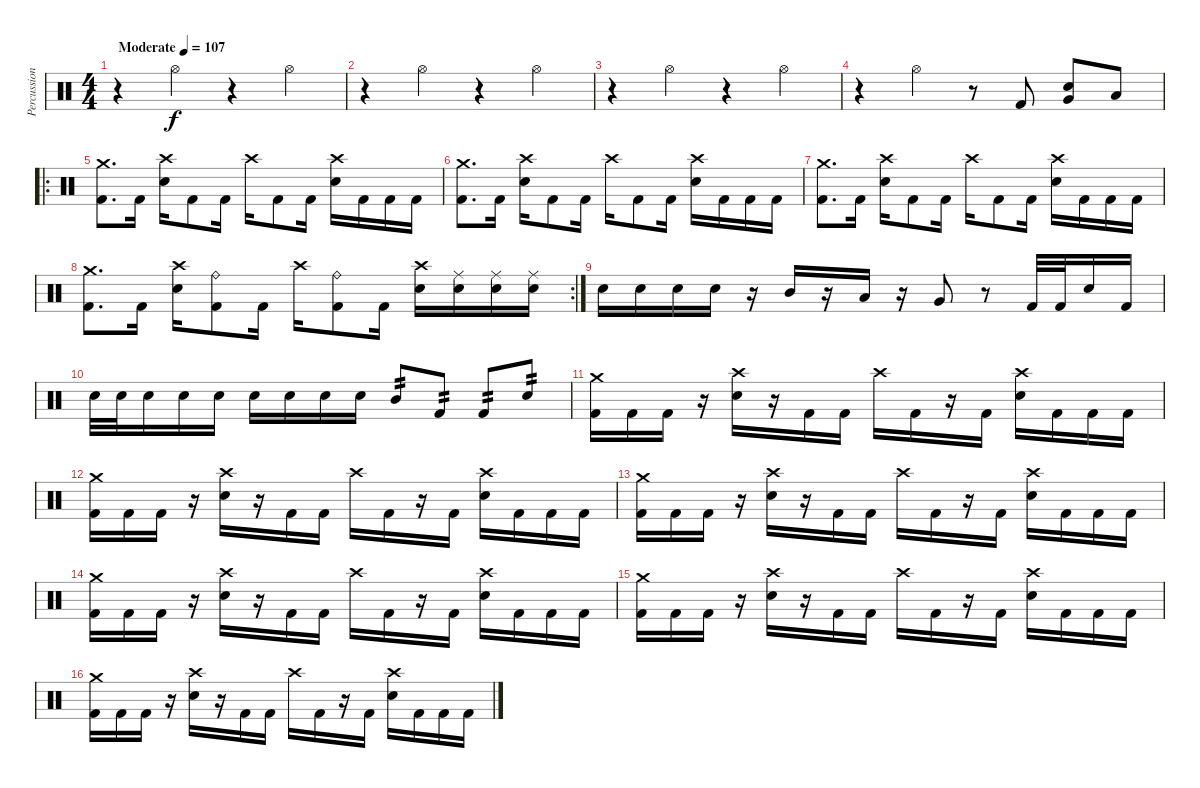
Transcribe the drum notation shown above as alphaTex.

\track ("Percussion" "Percussion") {instrument percussion}
\staff {score}
\articulation defaults
\ts (4 4)
\tempo (107 "Moderate")
\clef neutral
\ks c
r.4{dy f} "Hi-Hat (open)".4 r.4 "Hi-Hat (open)".4 |
r.4 "Hi-Hat (open)".4 r.4 "Hi-Hat (open)".4 |
r.4 "Hi-Hat (open)".4 r.4 "Hi-Hat (open)".4 |
r.4 "Hi-Hat (open)".4 r.8 "Kick (hit) 2".8 ("Very Low Tom (hit)" "Electric Snare (hit)").8 "Low Tom (hit)".8 |
\ro
("Crash medium (hit)" "Kick (hit) 2").8{d} "Kick (hit) 2".16 ("Crash high (hit)" "Electric Snare (hit)").16 "Kick (hit) 2".8 "Kick (hit) 2".16 "Crash high (hit)".16 "Kick (hit) 2".8 "Kick (hit) 2".16 ("Crash high (hit)" "Electric Snare (hit)").16 "Kick (hit) 2".16 "Kick (hit) 2".16 "Kick (hit) 2".16 |
("Crash medium (hit)" "Kick (hit) 2").8{d} "Kick (hit) 2".16 ("Crash high (hit)" "Electric Snare (hit)").16 "Kick (hit) 2".8 "Kick (hit) 2".16 "Crash high (hit)".16 "Kick (hit) 2".8 "Kick (hit) 2".16 ("Crash high (hit)" "Electric Snare (hit)").16 "Kick (hit) 2".16 "Kick (hit) 2".16 "Kick (hit) 2".16 |
("Crash medium (hit)" "Kick (hit) 2").8{d} "Kick (hit) 2".16 ("Crash high (hit)" "Electric Snare (hit)").16 "Kick (hit) 2".8 "Kick (hit) 2".16 "Crash high (hit)".16 "Kick (hit) 2".8 "Kick (hit) 2".16 ("Crash high (hit)" "Electric Snare (hit)").16 "Kick (hit) 2".16 "Kick (hit) 2".16 "Kick (hit) 2".16 |
\rc 2
("Crash medium (hit)" "Kick (hit) 2").8{d} "Kick (hit) 2".16 ("Crash high (hit)" "Electric Snare (hit)").16 ("Ride (bell)" "Kick (hit) 2").8 "Kick (hit) 2".16 "Crash high (hit)".16 ("Ride (bell)" "Kick (hit) 2").8 "Kick (hit) 2".16 ("Crash high (hit)" "Electric Snare (hit)").16 ("Ride (middle)" "Electric Snare (hit)").16 ("Ride (middle)" "Electric Snare (hit)").16 ("Ride (middle)" "Electric Snare (hit)").16 |
"Electric Snare (hit)".16 "Electric Snare (hit)".16 "Electric Snare (hit)".16 "Electric Snare (hit)".16 r.16 "Mid Tom (hit)".16 r.16 "Low Tom (hit)".16 r.16 "Very Low Tom (hit)".8 r.8 "Kick (hit) 2".32 "Kick (hit) 2".32 "Electric Snare (hit)".16 "Kick (hit) 2".16 |
"Electric Snare (hit)".32 "Electric Snare (hit)".32 "Electric Snare (hit)".16 "Electric Snare (hit)".16 "Electric Snare (hit)".16 "Electric Snare (hit)".16 "Electric Snare (hit)".16 "Electric Snare (hit)".16 "Electric Snare (hit)".16 "Mid Tom (hit)".8{tp 2} "Kick (hit) 2".8{tp 2} "Kick (hit) 2".8{tp 2} "Electric Snare (hit)".8{tp 2} |
("Crash medium (hit)" "Kick (hit) 2").16 "Kick (hit) 2".16 "Kick (hit) 2".16 r.16 ("Crash high (hit)" "Electric Snare (hit)").16 r.16 "Kick (hit) 2".16 "Kick (hit) 2".16 "Crash high (hit)".16 "Kick (hit) 2".16 r.16 "Kick (hit) 2".16 ("Crash high (hit)" "Electric Snare (hit)").16 "Kick (hit) 2".16 "Kick (hit) 2".16 "Kick (hit) 2".16 |
("Crash medium (hit)" "Kick (hit) 2").16 "Kick (hit) 2".16 "Kick (hit) 2".16 r.16 ("Crash high (hit)" "Electric Snare (hit)").16 r.16 "Kick (hit) 2".16 "Kick (hit) 2".16 "Crash high (hit)".16 "Kick (hit) 2".16 r.16 "Kick (hit) 2".16 ("Crash high (hit)" "Electric Snare (hit)").16 "Kick (hit) 2".16 "Kick (hit) 2".16 "Kick (hit) 2".16 |
("Crash medium (hit)" "Kick (hit) 2").16 "Kick (hit) 2".16 "Kick (hit) 2".16 r.16 ("Crash high (hit)" "Electric Snare (hit)").16 r.16 "Kick (hit) 2".16 "Kick (hit) 2".16 "Crash high (hit)".16 "Kick (hit) 2".16 r.16 "Kick (hit) 2".16 ("Crash high (hit)" "Electric Snare (hit)").16 "Kick (hit) 2".16 "Kick (hit) 2".16 "Kick (hit) 2".16 |
("Crash medium (hit)" "Kick (hit) 2").16 "Kick (hit) 2".16 "Kick (hit) 2".16 r.16 ("Crash high (hit)" "Electric Snare (hit)").16 r.16 "Kick (hit) 2".16 "Kick (hit) 2".16 "Crash high (hit)".16 "Kick (hit) 2".16 r.16 "Kick (hit) 2".16 ("Crash high (hit)" "Electric Snare (hit)").16 "Kick (hit) 2".16 "Kick (hit) 2".16 "Kick (hit) 2".16 |
("Crash medium (hit)" "Kick (hit) 2").16 "Kick (hit) 2".16 "Kick (hit) 2".16 r.16 ("Crash high (hit)" "Electric Snare (hit)").16 r.16 "Kick (hit) 2".16 "Kick (hit) 2".16 "Crash high (hit)".16 "Kick (hit) 2".16 r.16 "Kick (hit) 2".16 ("Crash high (hit)" "Electric Snare (hit)").16 "Kick (hit) 2".16 "Kick (hit) 2".16 "Kick (hit) 2".16 |
("Crash medium (hit)" "Kick (hit) 2").16 "Kick (hit) 2".16 "Kick (hit) 2".16 r.16 ("Crash high (hit)" "Electric Snare (hit)").16 r.16 "Kick (hit) 2".16 "Kick (hit) 2".16 "Crash high (hit)".16 "Kick (hit) 2".16 r.16 "Kick (hit) 2".16 ("Crash high (hit)" "Electric Snare (hit)").16 "Kick (hit) 2".16 "Kick (hit) 2".16 "Kick (hit) 2".16
